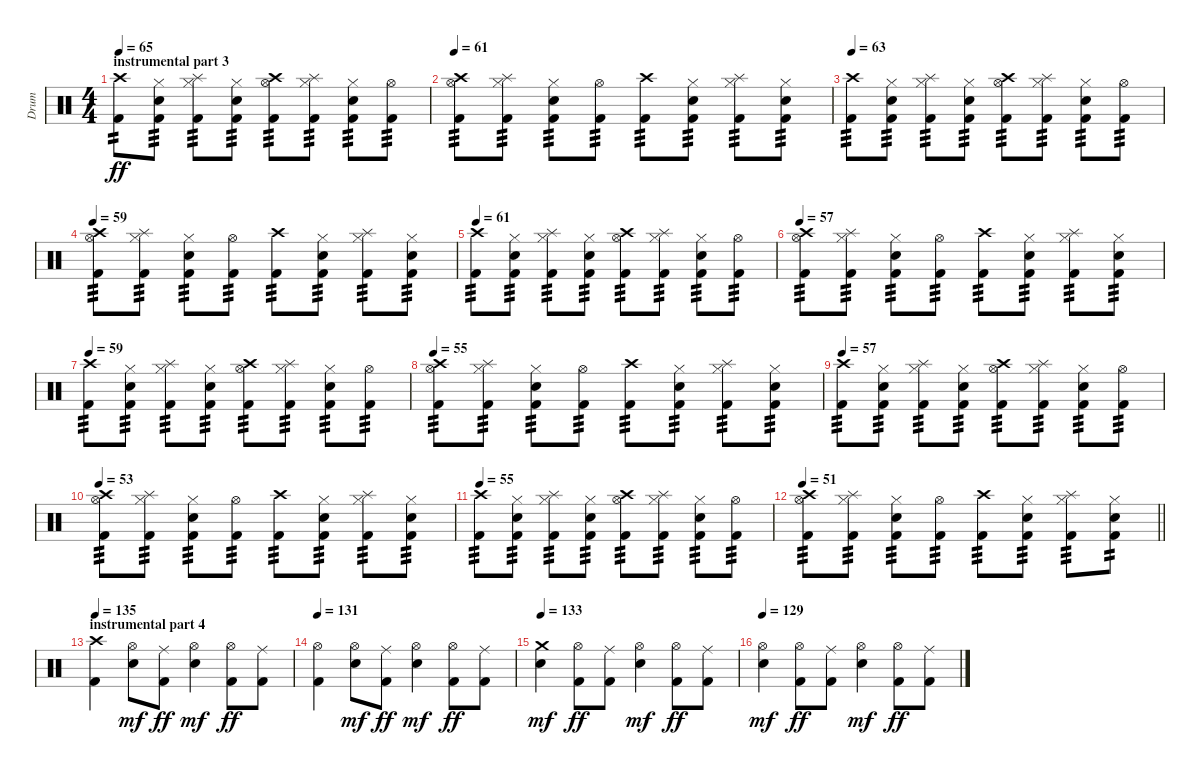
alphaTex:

\track ("Drum" "Drum") {instrument percussion}
\staff {score}
\articulation defaults
\ts (4 4)
\section ("" "instrumental part 3")
\tempo 63
\tempo 65
\clef neutral
\ks c
("Crash high (hit)" "Kick (hit) 2").8{tp 2 dy ff} ("Hi-Hat (closed)" "Electric Snare (hit)" "Kick (hit) 2").8{tp 3} ("Hi-Hat (closed)" "Splash (hit)" "Kick (hit) 2").8{tp 3} ("Hi-Hat (closed)" "Electric Snare (hit)" "Kick (hit) 2").8{tp 3} ("Crash high (hit)" "Hi-Hat (open)" "Kick (hit) 2").8{tp 3} ("Hi-Hat (closed)" "Splash (hit)" "Kick (hit) 2").8{tp 3} ("Hi-Hat (closed)" "Electric Snare (hit)" "Kick (hit) 2").8{tp 3} ("Hi-Hat (open)" "Kick (hit) 2").8{tp 3} |
\tempo 61
("Crash high (hit)" "Hi-Hat (open)" "Kick (hit) 2").8{tp 3} ("Hi-Hat (closed)" "Splash (hit)" "Kick (hit) 2").8{tp 3} ("Hi-Hat (closed)" "Electric Snare (hit)" "Kick (hit) 2").8{tp 3} ("Hi-Hat (open)" "Kick (hit) 2").8{tp 3} ("Crash high (hit)" "Kick (hit) 2").8{tp 3} ("Hi-Hat (closed)" "Electric Snare (hit)" "Kick (hit) 2").8{tp 3} ("Hi-Hat (closed)" "Splash (hit)" "Kick (hit) 2").8{tp 3} ("Hi-Hat (closed)" "Electric Snare (hit)" "Kick (hit) 2").8{tp 3} |
\tempo 63
("Crash high (hit)" "Kick (hit) 2").8{tp 3} ("Hi-Hat (closed)" "Electric Snare (hit)" "Kick (hit) 2").8{tp 3} ("Hi-Hat (closed)" "Splash (hit)" "Kick (hit) 2").8{tp 3} ("Hi-Hat (closed)" "Electric Snare (hit)" "Kick (hit) 2").8{tp 3} ("Crash high (hit)" "Hi-Hat (open)" "Kick (hit) 2").8{tp 3} ("Hi-Hat (closed)" "Splash (hit)" "Kick (hit) 2").8{tp 3} ("Hi-Hat (closed)" "Electric Snare (hit)" "Kick (hit) 2").8{tp 3} ("Hi-Hat (open)" "Kick (hit) 2").8{tp 3} |
\tempo 59
("Crash high (hit)" "Hi-Hat (open)" "Kick (hit) 2").8{tp 3} ("Hi-Hat (closed)" "Splash (hit)" "Kick (hit) 2").8{tp 3} ("Hi-Hat (closed)" "Electric Snare (hit)" "Kick (hit) 2").8{tp 3} ("Hi-Hat (open)" "Kick (hit) 2").8{tp 3} ("Crash high (hit)" "Kick (hit) 2").8{tp 3} ("Hi-Hat (closed)" "Electric Snare (hit)" "Kick (hit) 2").8{tp 3} ("Hi-Hat (closed)" "Splash (hit)" "Kick (hit) 2").8{tp 3} ("Hi-Hat (closed)" "Electric Snare (hit)" "Kick (hit) 2").8{tp 3} |
\tempo 61
("Crash high (hit)" "Kick (hit) 2").8{tp 3} ("Hi-Hat (closed)" "Electric Snare (hit)" "Kick (hit) 2").8{tp 3} ("Hi-Hat (closed)" "Splash (hit)" "Kick (hit) 2").8{tp 3} ("Hi-Hat (closed)" "Electric Snare (hit)" "Kick (hit) 2").8{tp 3} ("Crash high (hit)" "Hi-Hat (open)" "Kick (hit) 2").8{tp 3} ("Hi-Hat (closed)" "Splash (hit)" "Kick (hit) 2").8{tp 3} ("Hi-Hat (closed)" "Electric Snare (hit)" "Kick (hit) 2").8{tp 3} ("Hi-Hat (open)" "Kick (hit) 2").8{tp 3} |
\tempo 57
("Crash high (hit)" "Hi-Hat (open)" "Kick (hit) 2").8{tp 3} ("Hi-Hat (closed)" "Splash (hit)" "Kick (hit) 2").8{tp 3} ("Hi-Hat (closed)" "Electric Snare (hit)" "Kick (hit) 2").8{tp 3} ("Hi-Hat (open)" "Kick (hit) 2").8{tp 3} ("Crash high (hit)" "Kick (hit) 2").8{tp 3} ("Hi-Hat (closed)" "Electric Snare (hit)" "Kick (hit) 2").8{tp 3} ("Hi-Hat (closed)" "Splash (hit)" "Kick (hit) 2").8{tp 3} ("Hi-Hat (closed)" "Electric Snare (hit)" "Kick (hit) 2").8{tp 3} |
\tempo 59
("Crash high (hit)" "Kick (hit) 2").8{tp 3} ("Hi-Hat (closed)" "Electric Snare (hit)" "Kick (hit) 2").8{tp 3} ("Hi-Hat (closed)" "Splash (hit)" "Kick (hit) 2").8{tp 3} ("Hi-Hat (closed)" "Electric Snare (hit)" "Kick (hit) 2").8{tp 3} ("Crash high (hit)" "Hi-Hat (open)" "Kick (hit) 2").8{tp 3} ("Hi-Hat (closed)" "Splash (hit)" "Kick (hit) 2").8{tp 3} ("Hi-Hat (closed)" "Electric Snare (hit)" "Kick (hit) 2").8{tp 3} ("Hi-Hat (open)" "Kick (hit) 2").8{tp 3} |
\tempo 55
("Crash high (hit)" "Hi-Hat (open)" "Kick (hit) 2").8{tp 3} ("Hi-Hat (closed)" "Splash (hit)" "Kick (hit) 2").8{tp 3} ("Hi-Hat (closed)" "Electric Snare (hit)" "Kick (hit) 2").8{tp 3} ("Hi-Hat (open)" "Kick (hit) 2").8{tp 3} ("Crash high (hit)" "Kick (hit) 2").8{tp 3} ("Hi-Hat (closed)" "Electric Snare (hit)" "Kick (hit) 2").8{tp 3} ("Hi-Hat (closed)" "Splash (hit)" "Kick (hit) 2").8{tp 3} ("Hi-Hat (closed)" "Electric Snare (hit)" "Kick (hit) 2").8{tp 3} |
\tempo 57
("Crash high (hit)" "Kick (hit) 2").8{tp 3} ("Hi-Hat (closed)" "Electric Snare (hit)" "Kick (hit) 2").8{tp 3} ("Hi-Hat (closed)" "Splash (hit)" "Kick (hit) 2").8{tp 3} ("Hi-Hat (closed)" "Electric Snare (hit)" "Kick (hit) 2").8{tp 3} ("Crash high (hit)" "Hi-Hat (open)" "Kick (hit) 2").8{tp 3} ("Hi-Hat (closed)" "Splash (hit)" "Kick (hit) 2").8{tp 3} ("Hi-Hat (closed)" "Electric Snare (hit)" "Kick (hit) 2").8{tp 3} ("Hi-Hat (open)" "Kick (hit) 2").8{tp 3} |
\tempo 53
("Crash high (hit)" "Hi-Hat (open)" "Kick (hit) 2").8{tp 3} ("Hi-Hat (closed)" "Splash (hit)" "Kick (hit) 2").8{tp 3} ("Hi-Hat (closed)" "Electric Snare (hit)" "Kick (hit) 2").8{tp 3} ("Hi-Hat (open)" "Kick (hit) 2").8{tp 3} ("Crash high (hit)" "Kick (hit) 2").8{tp 3} ("Hi-Hat (closed)" "Electric Snare (hit)" "Kick (hit) 2").8{tp 3} ("Hi-Hat (closed)" "Splash (hit)" "Kick (hit) 2").8{tp 3} ("Hi-Hat (closed)" "Electric Snare (hit)" "Kick (hit) 2").8{tp 3} |
\tempo 55
("Crash high (hit)" "Kick (hit) 2").8{tp 3} ("Hi-Hat (closed)" "Electric Snare (hit)" "Kick (hit) 2").8{tp 3} ("Hi-Hat (closed)" "Splash (hit)" "Kick (hit) 2").8{tp 3} ("Hi-Hat (closed)" "Electric Snare (hit)" "Kick (hit) 2").8{tp 3} ("Crash high (hit)" "Hi-Hat (open)" "Kick (hit) 2").8{tp 3} ("Hi-Hat (closed)" "Splash (hit)" "Kick (hit) 2").8{tp 3} ("Hi-Hat (closed)" "Electric Snare (hit)" "Kick (hit) 2").8{tp 3} ("Hi-Hat (open)" "Kick (hit) 2").8{tp 3} |
\tempo 51
\barLineRight lightlight
("Crash high (hit)" "Hi-Hat (open)" "Kick (hit) 2").8{tp 3} ("Hi-Hat (closed)" "Splash (hit)" "Kick (hit) 2").8{tp 3} ("Hi-Hat (closed)" "Electric Snare (hit)" "Kick (hit) 2").8{tp 3} ("Hi-Hat (open)" "Kick (hit) 2").8{tp 3} ("Crash high (hit)" "Kick (hit) 2").8{tp 3} ("Hi-Hat (closed)" "Electric Snare (hit)" "Kick (hit) 2").8{tp 3} ("Hi-Hat (closed)" "Splash (hit)" "Kick (hit) 2").8{tp 3} ("Hi-Hat (closed)" "Electric Snare (hit)" "Kick (hit) 2").8{tp 2} |
\section ("" "instrumental part 4")
\tempo 135
("Crash high (hit)" "Kick (hit) 2").4 ("Hi-Hat (open)" "Electric Snare (hit)").8{dy mf} ("Ride (middle)" "Kick (hit) 2").8{dy ff} ("Hi-Hat (open)" "Electric Snare (hit)").4{dy mf} ("Hi-Hat (open)" "Kick (hit) 2").8{dy ff} ("Ride (middle)" "Kick (hit) 2").8 |
\tempo 131
("Hi-Hat (open)" "Kick (hit) 2").4 ("Hi-Hat (open)" "Electric Snare (hit)").8{dy mf} ("Ride (middle)" "Kick (hit) 2").8{dy ff} ("Hi-Hat (open)" "Electric Snare (hit)").4{dy mf} ("Hi-Hat (open)" "Kick (hit) 2").8{dy ff} ("Ride (middle)" "Kick (hit) 2").8 |
\tempo 133
("Crash medium (hit)" "Electric Snare (hit)").4{dy mf} ("Hi-Hat (open)" "Kick (hit) 2").8{dy ff} ("Ride (middle)" "Kick (hit) 2").8 ("Hi-Hat (open)" "Electric Snare (hit)").4{dy mf} ("Hi-Hat (open)" "Kick (hit) 2").8{dy ff} ("Ride (middle)" "Kick (hit) 2").8 |
\tempo 129
("Hi-Hat (open)" "Electric Snare (hit)").4{dy mf} ("Hi-Hat (open)" "Kick (hit) 2").8{dy ff} ("Ride (middle)" "Kick (hit) 2").8 ("Hi-Hat (open)" "Electric Snare (hit)").4{dy mf} ("Hi-Hat (open)" "Kick (hit) 2").8{dy ff} ("Ride (middle)" "Kick (hit) 2").8
